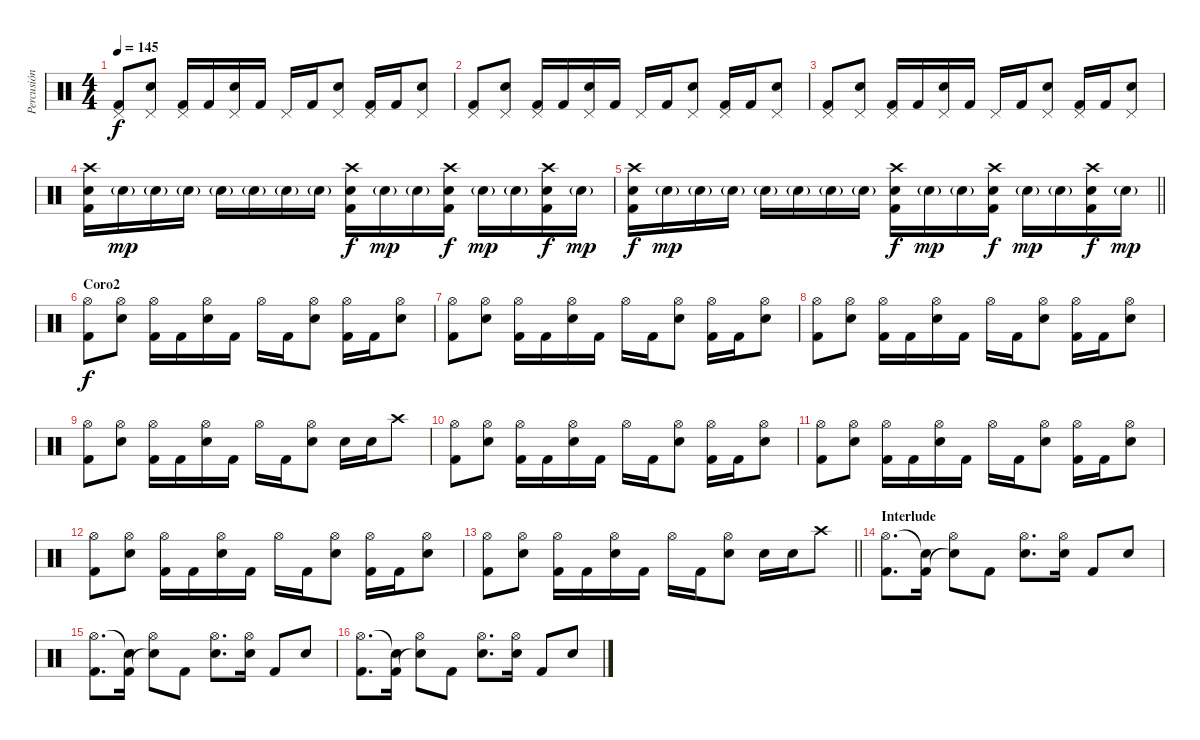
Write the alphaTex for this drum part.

\track ("Percusión" "Percusión") {instrument percussion}
\staff {score}
\articulation defaults
\ts (4 4)
\tempo 145
\clef neutral
\ks c
("Pedal Hi-Hat (hit)" "Kick (hit) 2").8{dy f} ("Pedal Hi-Hat (hit)" "Electric Snare (hit)").8 ("Pedal Hi-Hat (hit)" "Kick (hit) 2").16 "Kick (hit) 2".16 ("Pedal Hi-Hat (hit)" "Electric Snare (hit)").16 "Kick (hit) 2".16 "Pedal Hi-Hat (hit)".16 "Kick (hit) 2".16 ("Pedal Hi-Hat (hit)" "Electric Snare (hit)").8 ("Pedal Hi-Hat (hit)" "Kick (hit) 2").16 "Kick (hit) 2".16 ("Pedal Hi-Hat (hit)" "Electric Snare (hit)").8 |
("Pedal Hi-Hat (hit)" "Kick (hit) 2").8 ("Pedal Hi-Hat (hit)" "Electric Snare (hit)").8 ("Pedal Hi-Hat (hit)" "Kick (hit) 2").16 "Kick (hit) 2".16 ("Pedal Hi-Hat (hit)" "Electric Snare (hit)").16 "Kick (hit) 2".16 "Pedal Hi-Hat (hit)".16 "Kick (hit) 2".16 ("Pedal Hi-Hat (hit)" "Electric Snare (hit)").8 ("Pedal Hi-Hat (hit)" "Kick (hit) 2").16 "Kick (hit) 2".16 ("Pedal Hi-Hat (hit)" "Electric Snare (hit)").8 |
("Pedal Hi-Hat (hit)" "Kick (hit) 2").8 ("Pedal Hi-Hat (hit)" "Electric Snare (hit)").8 ("Pedal Hi-Hat (hit)" "Kick (hit) 2").16 "Kick (hit) 2".16 ("Pedal Hi-Hat (hit)" "Electric Snare (hit)").16 "Kick (hit) 2".16 "Pedal Hi-Hat (hit)".16 "Kick (hit) 2".16 ("Pedal Hi-Hat (hit)" "Electric Snare (hit)").8 ("Pedal Hi-Hat (hit)" "Kick (hit) 2").16 "Kick (hit) 2".16 ("Pedal Hi-Hat (hit)" "Electric Snare (hit)").8 |
("Crash high (hit)" "Electric Snare (hit)" "Kick (hit) 2").16 "Electric Snare (hit)"{g}.16{dy mp} "Electric Snare (hit)"{g}.16 "Electric Snare (hit)"{g}.16 "Electric Snare (hit)"{g}.16 "Electric Snare (hit)"{g}.16 "Electric Snare (hit)"{g}.16 "Electric Snare (hit)"{g}.16 ("Crash high (hit)" "Electric Snare (hit)" "Kick (hit) 2").16{dy f} "Electric Snare (hit)"{g}.16{dy mp} "Electric Snare (hit)"{g}.16 ("Crash high (hit)" "Electric Snare (hit)" "Kick (hit) 2").16{dy f} "Electric Snare (hit)"{g}.16{dy mp} "Electric Snare (hit)"{g}.16 ("Crash high (hit)" "Electric Snare (hit)" "Kick (hit) 2").16{dy f} "Electric Snare (hit)"{g}.16{dy mp} |
\barLineRight lightlight
("Crash high (hit)" "Electric Snare (hit)" "Kick (hit) 2").16{dy f} "Electric Snare (hit)"{g}.16{dy mp} "Electric Snare (hit)"{g}.16 "Electric Snare (hit)"{g}.16 "Electric Snare (hit)"{g}.16 "Electric Snare (hit)"{g}.16 "Electric Snare (hit)"{g}.16 "Electric Snare (hit)"{g}.16 ("Crash high (hit)" "Electric Snare (hit)" "Kick (hit) 2").16{dy f} "Electric Snare (hit)"{g}.16{dy mp} "Electric Snare (hit)"{g}.16 ("Crash high (hit)" "Electric Snare (hit)" "Kick (hit) 2").16{dy f} "Electric Snare (hit)"{g}.16{dy mp} "Electric Snare (hit)"{g}.16 ("Crash high (hit)" "Electric Snare (hit)" "Kick (hit) 2").16{dy f} "Electric Snare (hit)"{g}.16{dy mp} |
\section ("" "Coro2")
("Hi-Hat (open)" "Kick (hit) 2").8{dy f} ("Hi-Hat (open)" "Electric Snare (hit)").8 ("Hi-Hat (open)" "Kick (hit) 2").16 "Kick (hit) 2".16 ("Hi-Hat (open)" "Electric Snare (hit)").16 "Kick (hit) 2".16 "Hi-Hat (open)".16 "Kick (hit) 2".16 ("Hi-Hat (open)" "Electric Snare (hit)").8 ("Hi-Hat (open)" "Kick (hit) 2").16 "Kick (hit) 2".16 ("Hi-Hat (open)" "Electric Snare (hit)").8 |
("Hi-Hat (open)" "Kick (hit) 2").8 ("Hi-Hat (open)" "Electric Snare (hit)").8 ("Hi-Hat (open)" "Kick (hit) 2").16 "Kick (hit) 2".16 ("Hi-Hat (open)" "Electric Snare (hit)").16 "Kick (hit) 2".16 "Hi-Hat (open)".16 "Kick (hit) 2".16 ("Hi-Hat (open)" "Electric Snare (hit)").8 ("Hi-Hat (open)" "Kick (hit) 2").16 "Kick (hit) 2".16 ("Hi-Hat (open)" "Electric Snare (hit)").8 |
("Hi-Hat (open)" "Kick (hit) 2").8 ("Hi-Hat (open)" "Electric Snare (hit)").8 ("Hi-Hat (open)" "Kick (hit) 2").16 "Kick (hit) 2".16 ("Hi-Hat (open)" "Electric Snare (hit)").16 "Kick (hit) 2".16 "Hi-Hat (open)".16 "Kick (hit) 2".16 ("Hi-Hat (open)" "Electric Snare (hit)").8 ("Hi-Hat (open)" "Kick (hit) 2").16 "Kick (hit) 2".16 ("Hi-Hat (open)" "Electric Snare (hit)").8 |
("Hi-Hat (open)" "Kick (hit) 2").8 ("Hi-Hat (open)" "Electric Snare (hit)").8 ("Hi-Hat (open)" "Kick (hit) 2").16 "Kick (hit) 2".16 ("Hi-Hat (open)" "Electric Snare (hit)").16 "Kick (hit) 2".16 "Hi-Hat (open)".16 "Kick (hit) 2".16 ("Hi-Hat (open)" "Electric Snare (hit)").8 "Electric Snare (hit)".16 "Electric Snare (hit)".16 "Crash high (hit)".8 |
("Hi-Hat (open)" "Kick (hit) 2").8 ("Hi-Hat (open)" "Electric Snare (hit)").8 ("Hi-Hat (open)" "Kick (hit) 2").16 "Kick (hit) 2".16 ("Hi-Hat (open)" "Electric Snare (hit)").16 "Kick (hit) 2".16 "Hi-Hat (open)".16 "Kick (hit) 2".16 ("Hi-Hat (open)" "Electric Snare (hit)").8 ("Hi-Hat (open)" "Kick (hit) 2").16 "Kick (hit) 2".16 ("Hi-Hat (open)" "Electric Snare (hit)").8 |
("Hi-Hat (open)" "Kick (hit) 2").8 ("Hi-Hat (open)" "Electric Snare (hit)").8 ("Hi-Hat (open)" "Kick (hit) 2").16 "Kick (hit) 2".16 ("Hi-Hat (open)" "Electric Snare (hit)").16 "Kick (hit) 2".16 "Hi-Hat (open)".16 "Kick (hit) 2".16 ("Hi-Hat (open)" "Electric Snare (hit)").8 ("Hi-Hat (open)" "Kick (hit) 2").16 "Kick (hit) 2".16 ("Hi-Hat (open)" "Electric Snare (hit)").8 |
("Hi-Hat (open)" "Kick (hit) 2").8 ("Hi-Hat (open)" "Electric Snare (hit)").8 ("Hi-Hat (open)" "Kick (hit) 2").16 "Kick (hit) 2".16 ("Hi-Hat (open)" "Electric Snare (hit)").16 "Kick (hit) 2".16 "Hi-Hat (open)".16 "Kick (hit) 2".16 ("Hi-Hat (open)" "Electric Snare (hit)").8 ("Hi-Hat (open)" "Kick (hit) 2").16 "Kick (hit) 2".16 ("Hi-Hat (open)" "Electric Snare (hit)").8 |
\barLineRight lightlight
("Hi-Hat (open)" "Kick (hit) 2").8 ("Hi-Hat (open)" "Electric Snare (hit)").8 ("Hi-Hat (open)" "Kick (hit) 2").16 "Kick (hit) 2".16 ("Hi-Hat (open)" "Electric Snare (hit)").16 "Kick (hit) 2".16 "Hi-Hat (open)".16 "Kick (hit) 2".16 ("Hi-Hat (open)" "Electric Snare (hit)").8 "Electric Snare (hit)".16 "Electric Snare (hit)".16 "Crash high (hit)".8 |
\section ("" "Interlude")
("Hi-Hat (open)" "Kick (hit) 2").8{d} ("Snare (hit)"{t} "Kick (hit) 2").16 ("Hi-Hat (open)" "Snare (hit)"{t}).8 "Kick (hit) 2".8 ("Hi-Hat (open)" "Electric Snare (hit)").8{d} ("Hi-Hat (open)" "Electric Snare (hit)").16 "Kick (hit) 2".8 "Electric Snare (hit)".8 |
("Hi-Hat (open)" "Kick (hit) 2").8{d} ("Snare (hit)"{t} "Kick (hit) 2").16 ("Hi-Hat (open)" "Snare (hit)"{t}).8 "Kick (hit) 2".8 ("Hi-Hat (open)" "Electric Snare (hit)").8{d} ("Hi-Hat (open)" "Electric Snare (hit)").16 "Kick (hit) 2".8 "Electric Snare (hit)".8 |
("Hi-Hat (open)" "Kick (hit) 2").8{d} ("Snare (hit)"{t} "Kick (hit) 2").16 ("Hi-Hat (open)" "Snare (hit)"{t}).8 "Kick (hit) 2".8 ("Hi-Hat (open)" "Electric Snare (hit)").8{d} ("Hi-Hat (open)" "Electric Snare (hit)").16 "Kick (hit) 2".8 "Electric Snare (hit)".8
